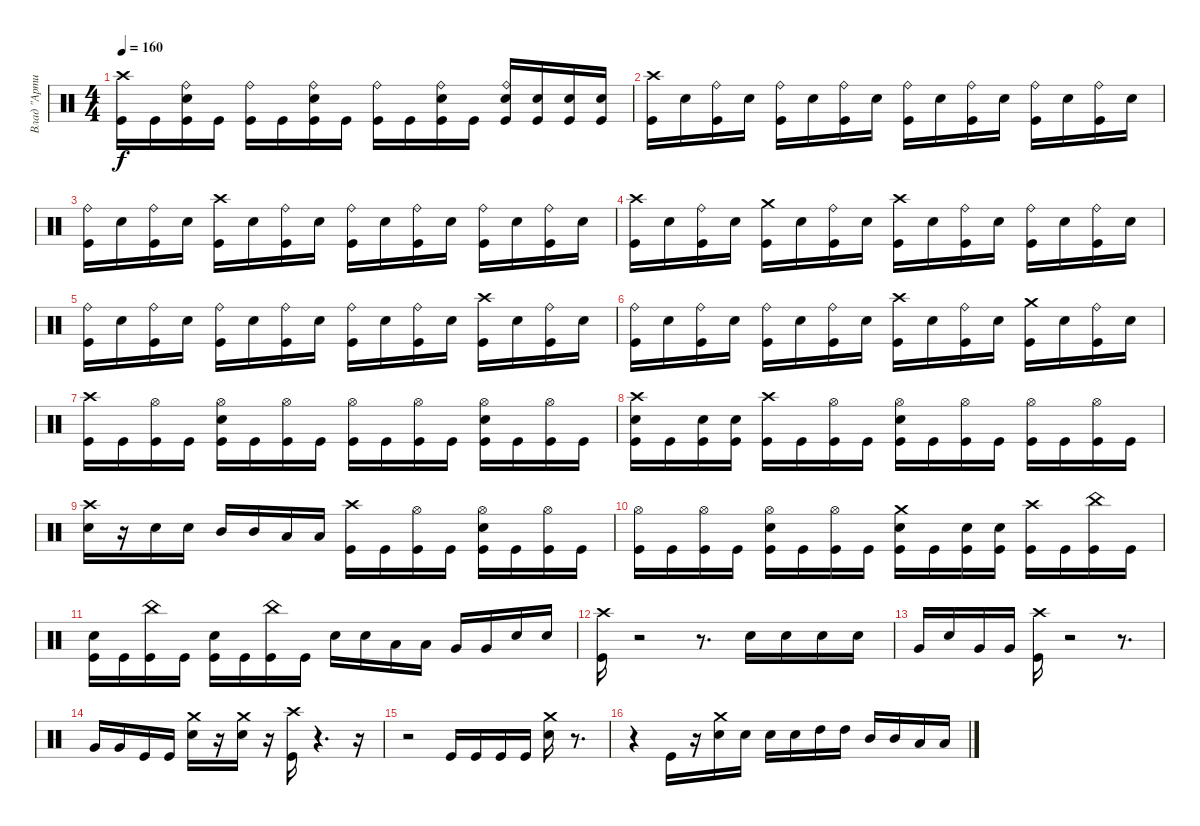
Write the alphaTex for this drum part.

\track ("Влад \"Артист\"" "Влад \"Арти") {instrument percussion}
\staff {score}
\articulation defaults
\ts (4 4)
\tempo 160
\clef neutral
\ks c
("Crash high (hit)" "Kick (hit)").16{dy f} "Kick (hit)".16 ("Kick (hit)" "Ride (bell)" "Snare (hit) 2").16 "Kick (hit)".16 ("Ride (bell)" "Kick (hit)").16 "Kick (hit)".16 ("Ride (bell)" "Kick (hit)" "Snare (hit) 2").16 "Kick (hit)".16 ("Ride (bell)" "Kick (hit)").16 "Kick (hit)".16 ("Kick (hit)" "Ride (bell)" "Snare (hit) 2").16 "Kick (hit)".16 ("Snare (hit) 2" "Ride (bell)" "Kick (hit)").16 ("Snare (hit) 2" "Kick (hit)").16 ("Snare (hit) 2" "Kick (hit)").16 ("Snare (hit) 2" "Kick (hit)").16 |
("Crash high (hit)" "Kick (hit)").16 "Snare (hit) 2".16 ("Kick (hit)" "Ride (bell)").16 "Snare (hit) 2".16 ("Kick (hit)" "Ride (bell)").16 "Snare (hit) 2".16 ("Kick (hit)" "Ride (bell)").16 "Snare (hit) 2".16 ("Ride (bell)" "Kick (hit)").16 "Snare (hit) 2".16 ("Kick (hit)" "Ride (bell)").16 "Snare (hit) 2".16 ("Kick (hit)" "Ride (bell)").16 "Snare (hit) 2".16 ("Kick (hit)" "Ride (bell)").16 "Snare (hit) 2".16 |
("Kick (hit)" "Ride (bell)").16 "Snare (hit) 2".16 ("Ride (bell)" "Kick (hit)").16 "Snare (hit) 2".16 ("Crash high (hit)" "Kick (hit)").16 "Snare (hit) 2".16 ("Kick (hit)" "Ride (bell)").16 "Snare (hit) 2".16 ("Kick (hit)" "Ride (bell)").16 "Snare (hit) 2".16 ("Kick (hit)" "Ride (bell)").16 "Snare (hit) 2".16 ("Ride (bell)" "Kick (hit)").16 "Snare (hit) 2".16 ("Kick (hit)" "Ride (bell)").16 "Snare (hit) 2".16 |
("Kick (hit)" "Crash high (hit)").16 "Snare (hit) 2".16 ("Kick (hit)" "Ride (bell)").16 "Snare (hit) 2".16 ("Kick (hit)" "Crash medium (hit)").16 "Snare (hit) 2".16 ("Ride (bell)" "Kick (hit)").16 "Snare (hit) 2".16 ("Crash high (hit)" "Kick (hit)").16 "Snare (hit) 2".16 ("Kick (hit)" "Ride (bell)").16 "Snare (hit) 2".16 ("Kick (hit)" "Ride (bell)").16 "Snare (hit) 2".16 ("Kick (hit)" "Ride (bell)").16 "Snare (hit) 2".16 |
("Ride (bell)" "Kick (hit)").16 "Snare (hit) 2".16 ("Kick (hit)" "Ride (bell)").16 "Snare (hit) 2".16 ("Kick (hit)" "Ride (bell)").16 "Snare (hit) 2".16 ("Kick (hit)" "Ride (bell)").16 "Snare (hit) 2".16 ("Kick (hit)" "Ride (bell)").16 "Snare (hit) 2".16 ("Ride (bell)" "Kick (hit)").16 "Snare (hit) 2".16 ("Crash high (hit)" "Kick (hit)").16 "Snare (hit) 2".16 ("Kick (hit)" "Ride (bell)").16 "Snare (hit) 2".16 |
("Kick (hit)" "Ride (bell)").16 "Snare (hit) 2".16 ("Kick (hit)" "Ride (bell)").16 "Snare (hit) 2".16 ("Ride (bell)" "Kick (hit)").16 "Snare (hit) 2".16 ("Kick (hit)" "Ride (bell)").16 "Snare (hit) 2".16 ("Kick (hit)" "Crash high (hit)").16 "Snare (hit) 2".16 ("Kick (hit)" "Ride (bell)").16 "Snare (hit) 2".16 ("Kick (hit)" "Crash medium (hit)").16 "Snare (hit) 2".16 ("Ride (bell)" "Kick (hit)").16 "Snare (hit) 2".16 |
("Kick (hit)" "Crash high (hit)").16 "Kick (hit)".16 ("Kick (hit)" "Hi-Hat (open)").16 "Kick (hit)".16 ("Snare (hit) 2" "Hi-Hat (open)" "Kick (hit)").16 "Kick (hit)".16 ("Kick (hit)" "Hi-Hat (open)").16 "Kick (hit)".16 ("Kick (hit)" "Hi-Hat (open)").16 "Kick (hit)".16 ("Kick (hit)" "Hi-Hat (open)").16 "Kick (hit)".16 ("Kick (hit)" "Snare (hit) 2" "Hi-Hat (open)").16 "Kick (hit)".16 ("Kick (hit)" "Hi-Hat (open)").16 "Kick (hit)".16 |
("Snare (hit) 2" "Kick (hit)" "Crash high (hit)").16 "Kick (hit)".16 ("Kick (hit)" "Snare (hit) 2").16 ("Snare (hit) 2" "Kick (hit)").16 ("Kick (hit)" "Crash high (hit)").16 "Kick (hit)".16 ("Kick (hit)" "Hi-Hat (open)").16 "Kick (hit)".16 ("Snare (hit) 2" "Hi-Hat (open)" "Kick (hit)").16 "Kick (hit)".16 ("Kick (hit)" "Hi-Hat (open)").16 "Kick (hit)".16 ("Kick (hit)" "Hi-Hat (open)").16 "Kick (hit)".16 ("Kick (hit)" "Hi-Hat (open)").16 "Kick (hit)".16 |
("Snare (hit) 2" "Crash high (hit)").16 r.16 "Snare (hit) 2".16 "Snare (hit) 2".16 "Mid Tom (hit)".16 "Mid Tom (hit)".16 "Low Tom (hit)".16 "Low Tom (hit)".16 ("Kick (hit)" "Crash high (hit)").16 "Kick (hit)".16 ("Kick (hit)" "Hi-Hat (open)").16 "Kick (hit)".16 ("Snare (hit) 2" "Hi-Hat (open)" "Kick (hit)").16 "Kick (hit)".16 ("Kick (hit)" "Hi-Hat (open)").16 "Kick (hit)".16 |
("Kick (hit)" "Hi-Hat (open)").16 "Kick (hit)".16 ("Kick (hit)" "Hi-Hat (open)").16 "Kick (hit)".16 ("Kick (hit)" "Snare (hit) 2" "Hi-Hat (open)").16 "Kick (hit)".16 ("Kick (hit)" "Hi-Hat (open)").16 "Kick (hit)".16 ("Snare (hit) 2" "Kick (hit)" "Crash medium (hit)").16 "Kick (hit)".16 ("Snare (hit) 2" "Kick (hit)").16 ("Snare (hit) 2" "Kick (hit)").16 ("Crash high (hit)" "Kick (hit)").16 "Kick (hit)".16 ("Kick (hit)" "China (hit)").16 "Kick (hit)".16 |
("Kick (hit)" "Snare (hit) 2").16 "Kick (hit)".16 ("Kick (hit)" "China (hit)").16 "Kick (hit)".16 ("Kick (hit)" "Snare (hit) 2").16 "Kick (hit)".16 ("Kick (hit)" "China (hit)").16 "Kick (hit)".16 "Snare (hit) 2".16 "Snare (hit) 2".16 "Low Tom (hit)".16 "Low Tom (hit)".16 "Very Low Tom (hit)".16 "Very Low Tom (hit)".16 "Snare (hit) 2".16 "Snare (hit) 2".16 |
("Kick (hit)" "Crash high (hit)").16 r.2 r.8{d} "Snare (hit) 2".16 "Snare (hit) 2".16 "Snare (hit) 2".16 "Snare (hit) 2".16 |
"Very Low Tom (hit)".16 "Snare (hit) 2".16 "Very Low Tom (hit)".16 "Very Low Tom (hit)".16 ("Kick (hit)" "Crash high (hit)").16 r.2 r.8{d} |
"Very Low Tom (hit)".16 "Very Low Tom (hit)".16 "Kick (hit)".16 "Kick (hit)".16 ("Crash medium (hit)" "Snare (hit) 2").16 r.16 ("Snare (hit) 2" "Crash medium (hit)").16 r.16 ("Crash high (hit)" "Kick (hit)").16 r.4{d} r.16 |
r.2 "Kick (hit)".16 "Kick (hit)".16 "Kick (hit)".16 "Kick (hit)".16 ("Crash medium (hit)" "Snare (hit) 2").16 r.8{d} |
r.4 "Kick (hit)".16 r.16 ("Crash medium (hit)" "Snare (hit) 2").16 "Snare (hit) 2".16 "Snare (hit) 2".16 "Snare (hit) 2".16 "High Tom (hit)".16 "High Tom (hit)".16 "Mid Tom (hit)".16 "Mid Tom (hit)".16 "Low Tom (hit)".16 "Low Tom (hit)".16
